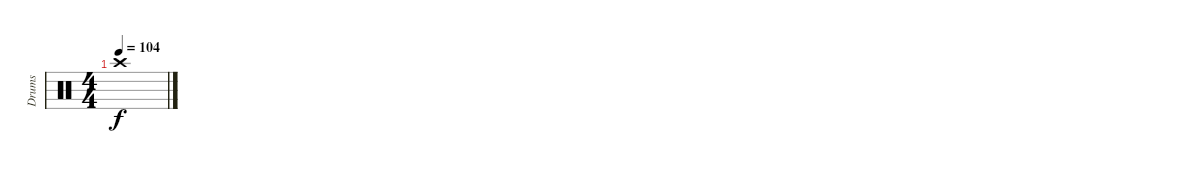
\track ("Drums" "Drums") {instrument percussion}
\staff {score}
\articulation defaults
\ts (4 4)
\tempo 104
\clef neutral
\ks c "Crash high (hit)"{t}.1{dy f}
